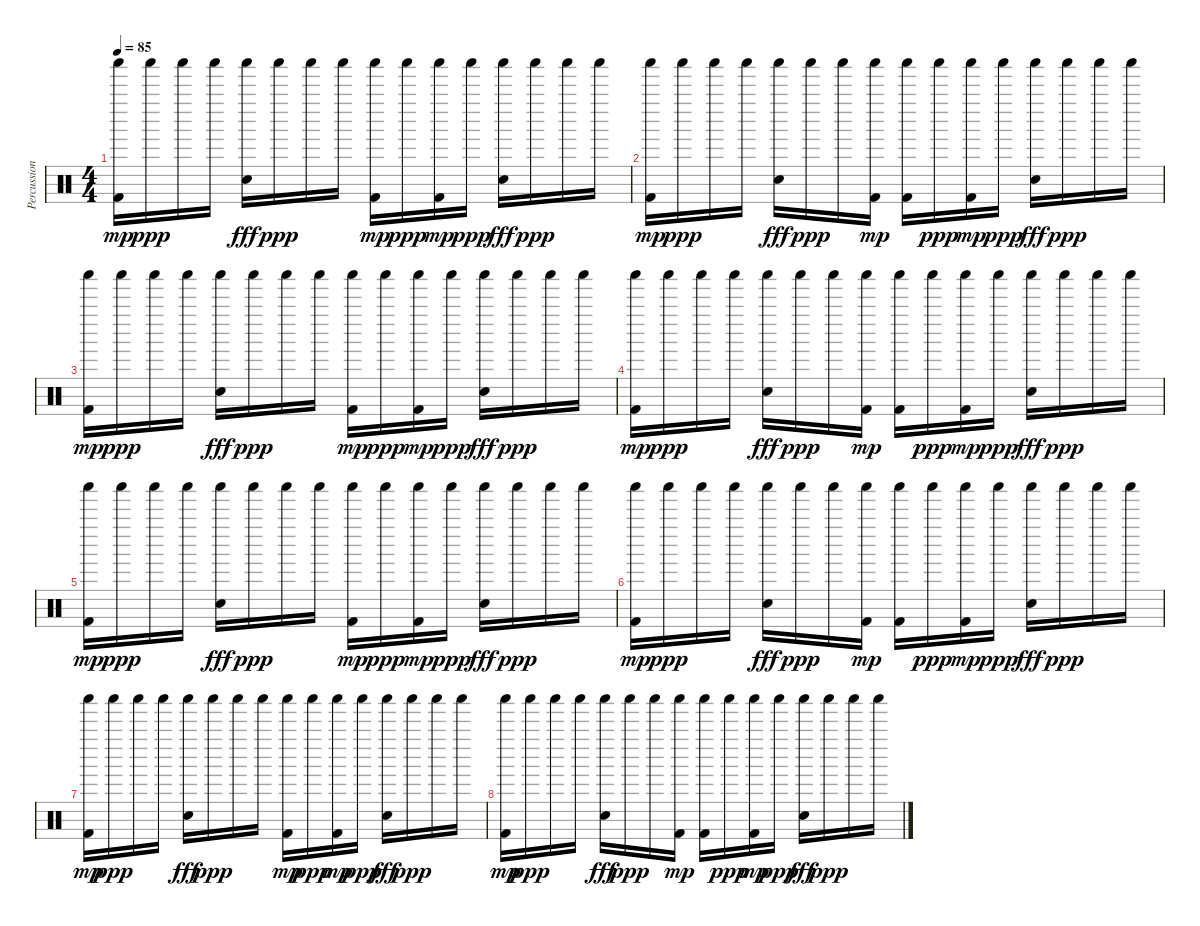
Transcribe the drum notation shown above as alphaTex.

\track ("Percussion" "Percussion") {instrument percussion}
\staff {score}
\articulation defaults
\ts (4 4)
\tempo 85
\clef neutral
\ks c
("Shaker (hit)" "Kick (hit) 2").16{dy mp} "Shaker (hit)".16{dy ppp} "Shaker (hit)".16 "Shaker (hit)".16 ("Shaker (hit)" "Electric Snare (hit)").16{dy fff} "Shaker (hit)".16{dy ppp} "Shaker (hit)".16 "Shaker (hit)".16 ("Shaker (hit)" "Kick (hit) 2").16{dy mp} "Shaker (hit)".16{dy ppp} ("Shaker (hit)" "Kick (hit) 2").16{dy mp} "Shaker (hit)".16{dy ppp} ("Shaker (hit)" "Electric Snare (hit)").16{dy fff} "Shaker (hit)".16{dy ppp} "Shaker (hit)".16 "Shaker (hit)".16 |
("Shaker (hit)" "Kick (hit) 2").16{dy mp} "Shaker (hit)".16{dy ppp} "Shaker (hit)".16 "Shaker (hit)".16 ("Shaker (hit)" "Electric Snare (hit)").16{dy fff} "Shaker (hit)".16{dy ppp} "Shaker (hit)".16 ("Shaker (hit)" "Kick (hit) 2").16{dy mp} ("Shaker (hit)" "Kick (hit) 2").16 "Shaker (hit)".16{dy ppp} ("Shaker (hit)" "Kick (hit) 2").16{dy mp} "Shaker (hit)".16{dy ppp} ("Shaker (hit)" "Electric Snare (hit)").16{dy fff} "Shaker (hit)".16{dy ppp} "Shaker (hit)".16 "Shaker (hit)".16 |
("Shaker (hit)" "Kick (hit) 2").16{dy mp} "Shaker (hit)".16{dy ppp} "Shaker (hit)".16 "Shaker (hit)".16 ("Shaker (hit)" "Electric Snare (hit)").16{dy fff} "Shaker (hit)".16{dy ppp} "Shaker (hit)".16 "Shaker (hit)".16 ("Shaker (hit)" "Kick (hit) 2").16{dy mp} "Shaker (hit)".16{dy ppp} ("Shaker (hit)" "Kick (hit) 2").16{dy mp} "Shaker (hit)".16{dy ppp} ("Shaker (hit)" "Electric Snare (hit)").16{dy fff} "Shaker (hit)".16{dy ppp} "Shaker (hit)".16 "Shaker (hit)".16 |
("Shaker (hit)" "Kick (hit) 2").16{dy mp} "Shaker (hit)".16{dy ppp} "Shaker (hit)".16 "Shaker (hit)".16 ("Shaker (hit)" "Electric Snare (hit)").16{dy fff} "Shaker (hit)".16{dy ppp} "Shaker (hit)".16 ("Shaker (hit)" "Kick (hit) 2").16{dy mp} ("Shaker (hit)" "Kick (hit) 2").16 "Shaker (hit)".16{dy ppp} ("Shaker (hit)" "Kick (hit) 2").16{dy mp} "Shaker (hit)".16{dy ppp} ("Shaker (hit)" "Electric Snare (hit)").16{dy fff} "Shaker (hit)".16{dy ppp} "Shaker (hit)".16 "Shaker (hit)".16 |
("Shaker (hit)" "Kick (hit) 2").16{dy mp} "Shaker (hit)".16{dy ppp} "Shaker (hit)".16 "Shaker (hit)".16 ("Shaker (hit)" "Electric Snare (hit)").16{dy fff} "Shaker (hit)".16{dy ppp} "Shaker (hit)".16 "Shaker (hit)".16 ("Shaker (hit)" "Kick (hit) 2").16{dy mp} "Shaker (hit)".16{dy ppp} ("Shaker (hit)" "Kick (hit) 2").16{dy mp} "Shaker (hit)".16{dy ppp} ("Shaker (hit)" "Electric Snare (hit)").16{dy fff} "Shaker (hit)".16{dy ppp} "Shaker (hit)".16 "Shaker (hit)".16 |
("Shaker (hit)" "Kick (hit) 2").16{dy mp} "Shaker (hit)".16{dy ppp} "Shaker (hit)".16 "Shaker (hit)".16 ("Shaker (hit)" "Electric Snare (hit)").16{dy fff} "Shaker (hit)".16{dy ppp} "Shaker (hit)".16 ("Shaker (hit)" "Kick (hit) 2").16{dy mp} ("Shaker (hit)" "Kick (hit) 2").16 "Shaker (hit)".16{dy ppp} ("Shaker (hit)" "Kick (hit) 2").16{dy mp} "Shaker (hit)".16{dy ppp} ("Shaker (hit)" "Electric Snare (hit)").16{dy fff} "Shaker (hit)".16{dy ppp} "Shaker (hit)".16 "Shaker (hit)".16 |
("Shaker (hit)" "Kick (hit) 2").16{dy mp} "Shaker (hit)".16{dy ppp} "Shaker (hit)".16 "Shaker (hit)".16 ("Shaker (hit)" "Electric Snare (hit)").16{dy fff} "Shaker (hit)".16{dy ppp} "Shaker (hit)".16 "Shaker (hit)".16 ("Shaker (hit)" "Kick (hit) 2").16{dy mp} "Shaker (hit)".16{dy ppp} ("Shaker (hit)" "Kick (hit) 2").16{dy mp} "Shaker (hit)".16{dy ppp} ("Shaker (hit)" "Electric Snare (hit)").16{dy fff} "Shaker (hit)".16{dy ppp} "Shaker (hit)".16 "Shaker (hit)".16 |
("Shaker (hit)" "Kick (hit) 2").16{dy mp} "Shaker (hit)".16{dy ppp} "Shaker (hit)".16 "Shaker (hit)".16 ("Shaker (hit)" "Electric Snare (hit)").16{dy fff} "Shaker (hit)".16{dy ppp} "Shaker (hit)".16 ("Shaker (hit)" "Kick (hit) 2").16{dy mp} ("Shaker (hit)" "Kick (hit) 2").16 "Shaker (hit)".16{dy ppp} ("Shaker (hit)" "Kick (hit) 2").16{dy mp} "Shaker (hit)".16{dy ppp} ("Shaker (hit)" "Electric Snare (hit)").16{dy fff} "Shaker (hit)".16{dy ppp} "Shaker (hit)".16 "Shaker (hit)".16
